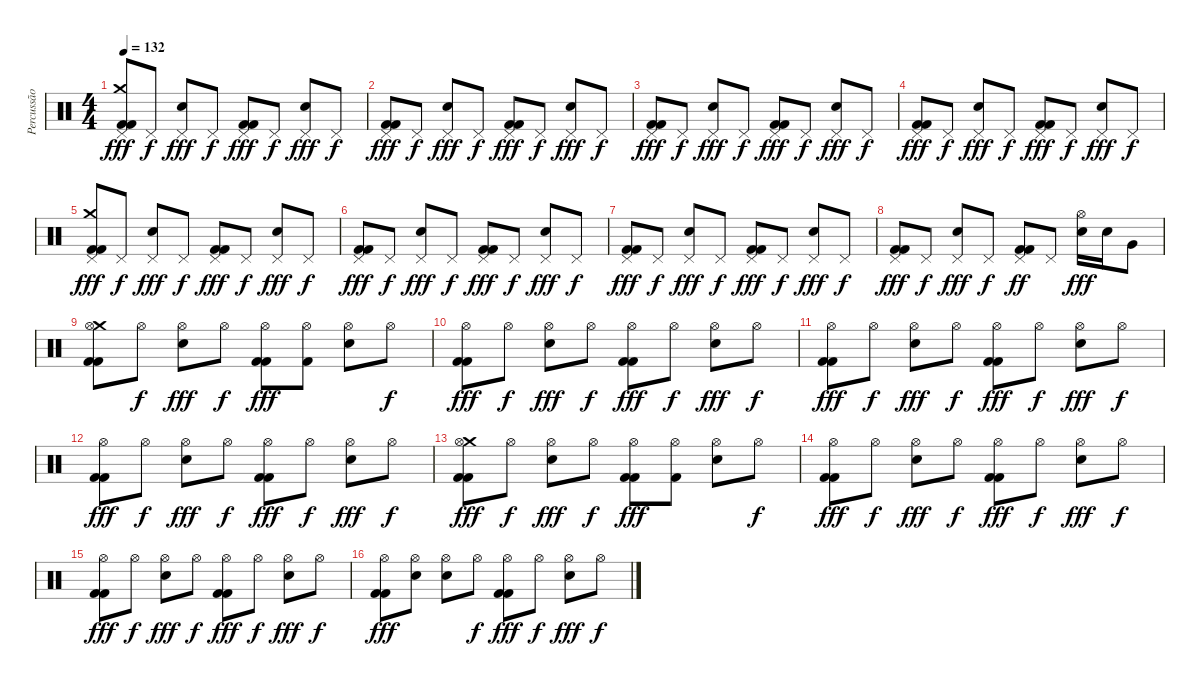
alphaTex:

\track ("Percussão" "Percussão") {instrument percussion}
\staff {score}
\articulation defaults
\ts (4 4)
\tempo 132
\clef neutral
\ks c
("Kick (hit) 2" "Kick (hit) 2" "Crash medium (hit)" "Pedal Hi-Hat (hit)").8{dy fff} "Pedal Hi-Hat (hit)".8{dy f} ("Electric Snare (hit)" "Pedal Hi-Hat (hit)").8{dy fff} "Pedal Hi-Hat (hit)".8{dy f} ("Kick (hit) 2" "Kick (hit) 2" "Pedal Hi-Hat (hit)").8{dy fff} "Pedal Hi-Hat (hit)".8{dy f} ("Electric Snare (hit)" "Pedal Hi-Hat (hit)").8{dy fff} "Pedal Hi-Hat (hit)".8{dy f} |
("Kick (hit) 2" "Kick (hit) 2" "Pedal Hi-Hat (hit)").8{dy fff} "Pedal Hi-Hat (hit)".8{dy f} ("Electric Snare (hit)" "Pedal Hi-Hat (hit)").8{dy fff} "Pedal Hi-Hat (hit)".8{dy f} ("Kick (hit) 2" "Kick (hit) 2" "Pedal Hi-Hat (hit)").8{dy fff} "Pedal Hi-Hat (hit)".8{dy f} ("Electric Snare (hit)" "Pedal Hi-Hat (hit)").8{dy fff} "Pedal Hi-Hat (hit)".8{dy f} |
("Kick (hit) 2" "Kick (hit) 2" "Pedal Hi-Hat (hit)").8{dy fff} "Pedal Hi-Hat (hit)".8{dy f} ("Electric Snare (hit)" "Pedal Hi-Hat (hit)").8{dy fff} "Pedal Hi-Hat (hit)".8{dy f} ("Kick (hit) 2" "Kick (hit) 2" "Pedal Hi-Hat (hit)").8{dy fff} "Pedal Hi-Hat (hit)".8{dy f} ("Electric Snare (hit)" "Pedal Hi-Hat (hit)").8{dy fff} "Pedal Hi-Hat (hit)".8{dy f} |
("Kick (hit) 2" "Kick (hit) 2" "Pedal Hi-Hat (hit)").8{dy fff} "Pedal Hi-Hat (hit)".8{dy f} ("Electric Snare (hit)" "Pedal Hi-Hat (hit)").8{dy fff} "Pedal Hi-Hat (hit)".8{dy f} ("Kick (hit) 2" "Kick (hit) 2" "Pedal Hi-Hat (hit)").8{dy fff} "Pedal Hi-Hat (hit)".8{dy f} ("Electric Snare (hit)" "Pedal Hi-Hat (hit)").8{dy fff} "Pedal Hi-Hat (hit)".8{dy f} |
("Kick (hit) 2" "Kick (hit) 2" "Crash medium (hit)" "Pedal Hi-Hat (hit)").8{dy fff} "Pedal Hi-Hat (hit)".8{dy f} ("Electric Snare (hit)" "Pedal Hi-Hat (hit)").8{dy fff} "Pedal Hi-Hat (hit)".8{dy f} ("Kick (hit) 2" "Kick (hit) 2" "Pedal Hi-Hat (hit)").8{dy fff} "Pedal Hi-Hat (hit)".8{dy f} ("Electric Snare (hit)" "Pedal Hi-Hat (hit)").8{dy fff} "Pedal Hi-Hat (hit)".8{dy f} |
("Kick (hit) 2" "Kick (hit) 2" "Pedal Hi-Hat (hit)").8{dy fff} "Pedal Hi-Hat (hit)".8{dy f} ("Electric Snare (hit)" "Pedal Hi-Hat (hit)").8{dy fff} "Pedal Hi-Hat (hit)".8{dy f} ("Kick (hit) 2" "Kick (hit) 2" "Pedal Hi-Hat (hit)").8{dy fff} "Pedal Hi-Hat (hit)".8{dy f} ("Electric Snare (hit)" "Pedal Hi-Hat (hit)").8{dy fff} "Pedal Hi-Hat (hit)".8{dy f} |
("Kick (hit) 2" "Kick (hit) 2" "Pedal Hi-Hat (hit)").8{dy fff} "Pedal Hi-Hat (hit)".8{dy f} ("Electric Snare (hit)" "Pedal Hi-Hat (hit)").8{dy fff} "Pedal Hi-Hat (hit)".8{dy f} ("Kick (hit) 2" "Kick (hit) 2" "Pedal Hi-Hat (hit)").8{dy fff} "Pedal Hi-Hat (hit)".8{dy f} ("Electric Snare (hit)" "Pedal Hi-Hat (hit)").8{dy fff} "Pedal Hi-Hat (hit)".8{dy f} |
("Kick (hit) 2" "Kick (hit) 2" "Pedal Hi-Hat (hit)").8{dy fff} "Pedal Hi-Hat (hit)".8{dy f} ("Electric Snare (hit)" "Pedal Hi-Hat (hit)").8{dy fff} "Pedal Hi-Hat (hit)".8{dy f} ("Kick (hit) 2" "Kick (hit) 2" "Pedal Hi-Hat (hit)").8{dy ff} "Pedal Hi-Hat (hit)".8 ("Electric Snare (hit)" "Hi-Hat (open)").16{dy fff} "Electric Snare (hit)".16 "Very Low Tom (hit)".8 |
("Kick (hit) 2" "Kick (hit) 2" "Crash medium (hit)" "Hi-Hat (open)").8 "Hi-Hat (open)".8{dy f} ("Electric Snare (hit)" "Hi-Hat (open)").8{dy fff} "Hi-Hat (open)".8{dy f} ("Kick (hit) 2" "Kick (hit) 2" "Hi-Hat (open)").8{dy fff} ("Kick (hit) 2" "Hi-Hat (open)").8 ("Electric Snare (hit)" "Hi-Hat (open)").8 "Hi-Hat (open)".8{dy f} |
("Kick (hit) 2" "Kick (hit) 2" "Hi-Hat (open)").8{dy fff} "Hi-Hat (open)".8{dy f} ("Electric Snare (hit)" "Hi-Hat (open)").8{dy fff} "Hi-Hat (open)".8{dy f} ("Kick (hit) 2" "Kick (hit) 2" "Hi-Hat (open)").8{dy fff} "Hi-Hat (open)".8{dy f} ("Electric Snare (hit)" "Hi-Hat (open)").8{dy fff} "Hi-Hat (open)".8{dy f} |
("Kick (hit) 2" "Kick (hit) 2" "Hi-Hat (open)").8{dy fff} "Hi-Hat (open)".8{dy f} ("Electric Snare (hit)" "Hi-Hat (open)").8{dy fff} "Hi-Hat (open)".8{dy f} ("Kick (hit) 2" "Kick (hit) 2" "Hi-Hat (open)").8{dy fff} "Hi-Hat (open)".8{dy f} ("Electric Snare (hit)" "Hi-Hat (open)").8{dy fff} "Hi-Hat (open)".8{dy f} |
("Kick (hit) 2" "Kick (hit) 2" "Hi-Hat (open)").8{dy fff} "Hi-Hat (open)".8{dy f} ("Electric Snare (hit)" "Hi-Hat (open)").8{dy fff} "Hi-Hat (open)".8{dy f} ("Kick (hit) 2" "Kick (hit) 2" "Hi-Hat (open)").8{dy fff} "Hi-Hat (open)".8{dy f} ("Electric Snare (hit)" "Hi-Hat (open)").8{dy fff} "Hi-Hat (open)".8{dy f} |
("Kick (hit) 2" "Kick (hit) 2" "Crash medium (hit)" "Hi-Hat (open)").8{dy fff} "Hi-Hat (open)".8{dy f} ("Electric Snare (hit)" "Hi-Hat (open)").8{dy fff} "Hi-Hat (open)".8{dy f} ("Kick (hit) 2" "Kick (hit) 2" "Hi-Hat (open)").8{dy fff} ("Kick (hit) 2" "Hi-Hat (open)").8 ("Electric Snare (hit)" "Hi-Hat (open)").8 "Hi-Hat (open)".8{dy f} |
("Kick (hit) 2" "Kick (hit) 2" "Hi-Hat (open)").8{dy fff} "Hi-Hat (open)".8{dy f} ("Electric Snare (hit)" "Hi-Hat (open)").8{dy fff} "Hi-Hat (open)".8{dy f} ("Kick (hit) 2" "Kick (hit) 2" "Hi-Hat (open)").8{dy fff} "Hi-Hat (open)".8{dy f} ("Electric Snare (hit)" "Hi-Hat (open)").8{dy fff} "Hi-Hat (open)".8{dy f} |
("Kick (hit) 2" "Kick (hit) 2" "Hi-Hat (open)").8{dy fff} "Hi-Hat (open)".8{dy f} ("Electric Snare (hit)" "Hi-Hat (open)").8{dy fff} "Hi-Hat (open)".8{dy f} ("Kick (hit) 2" "Kick (hit) 2" "Hi-Hat (open)").8{dy fff} "Hi-Hat (open)".8{dy f} ("Electric Snare (hit)" "Hi-Hat (open)").8{dy fff} "Hi-Hat (open)".8{dy f} |
("Kick (hit) 2" "Kick (hit) 2" "Hi-Hat (open)").8{dy fff} ("Electric Snare (hit)" "Hi-Hat (open)").8 ("Electric Snare (hit)" "Hi-Hat (open)").8 "Hi-Hat (open)".8{dy f} ("Kick (hit) 2" "Kick (hit) 2" "Hi-Hat (open)").8{dy fff} "Hi-Hat (open)".8{dy f} ("Electric Snare (hit)" "Hi-Hat (open)").8{dy fff} "Hi-Hat (open)".8{dy f}
